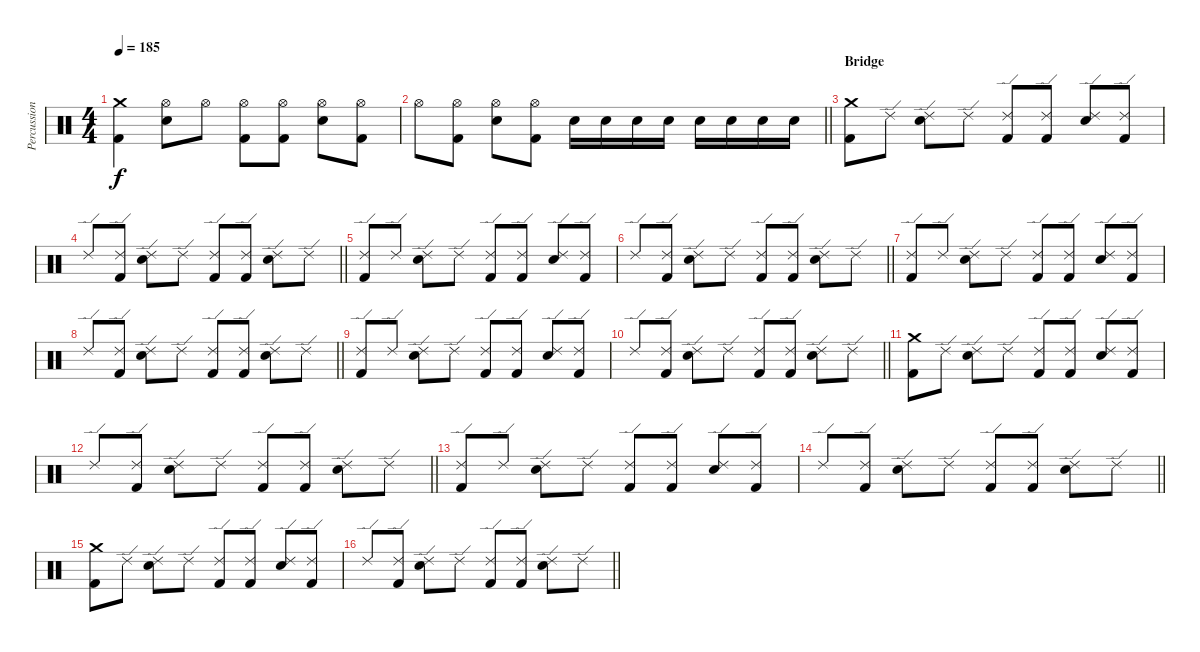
\track ("Percussion" "Percussion") {instrument percussion}
\staff {score}
\articulation defaults
\ts (4 4)
\tempo 185
\clef neutral
\ks c
("Crash medium (hit)" "Kick (hit) 2").4{dy f} ("Hi-Hat (open)" "Electric Snare (hit)").8 "Hi-Hat (open)".8 ("Hi-Hat (open)" "Kick (hit) 2").8 ("Hi-Hat (open)" "Kick (hit) 2").8 ("Hi-Hat (open)" "Electric Snare (hit)").8 ("Hi-Hat (open)" "Kick (hit) 2").8 |
\barLineRight lightlight "Hi-Hat (open)".8
("Hi-Hat (open)" "Kick (hit) 2").8 ("Hi-Hat (open)" "Electric Snare (hit)").8 ("Hi-Hat (open)" "Kick (hit) 2").8 "Electric Snare (hit)".16 "Electric Snare (hit)".16 "Electric Snare (hit)".16 "Electric Snare (hit)".16 "Electric Snare (hit)".16 "Electric Snare (hit)".16 "Electric Snare (hit)".16 "Electric Snare (hit)".16 |
\section ("" "Bridge")
("Crash medium (hit)" "Kick (hit) 2").8 "Ride (edge) 2".8 ("Ride (edge) 2" "Electric Snare (hit)").8 "Ride (edge) 2".8 ("Ride (edge) 2" "Kick (hit) 2").8 ("Ride (edge) 2" "Kick (hit) 2").8 ("Ride (edge) 2" "Electric Snare (hit)").8 ("Ride (edge) 2" "Kick (hit) 2").8 |
\barLineRight lightlight "Ride (edge) 2".8
("Ride (edge) 2" "Kick (hit) 2").8 ("Ride (edge) 2" "Electric Snare (hit)").8 "Ride (edge) 2".8 ("Ride (edge) 2" "Kick (hit) 2").8 ("Ride (edge) 2" "Kick (hit) 2").8 ("Ride (edge) 2" "Electric Snare (hit)").8 "Ride (edge) 2".8 |
("Ride (edge) 2" "Kick (hit) 2").8 "Ride (edge) 2".8 ("Ride (edge) 2" "Electric Snare (hit)").8 "Ride (edge) 2".8 ("Ride (edge) 2" "Kick (hit) 2").8 ("Ride (edge) 2" "Kick (hit) 2").8 ("Ride (edge) 2" "Electric Snare (hit)").8 ("Ride (edge) 2" "Kick (hit) 2").8 |
\barLineRight lightlight "Ride (edge) 2".8
("Ride (edge) 2" "Kick (hit) 2").8 ("Ride (edge) 2" "Electric Snare (hit)").8 "Ride (edge) 2".8 ("Ride (edge) 2" "Kick (hit) 2").8 ("Ride (edge) 2" "Kick (hit) 2").8 ("Ride (edge) 2" "Electric Snare (hit)").8 "Ride (edge) 2".8 |
("Ride (edge) 2" "Kick (hit) 2").8 "Ride (edge) 2".8 ("Ride (edge) 2" "Electric Snare (hit)").8 "Ride (edge) 2".8 ("Ride (edge) 2" "Kick (hit) 2").8 ("Ride (edge) 2" "Kick (hit) 2").8 ("Ride (edge) 2" "Electric Snare (hit)").8 ("Ride (edge) 2" "Kick (hit) 2").8 |
\barLineRight lightlight "Ride (edge) 2".8
("Ride (edge) 2" "Kick (hit) 2").8 ("Ride (edge) 2" "Electric Snare (hit)").8 "Ride (edge) 2".8 ("Ride (edge) 2" "Kick (hit) 2").8 ("Ride (edge) 2" "Kick (hit) 2").8 ("Ride (edge) 2" "Electric Snare (hit)").8 "Ride (edge) 2".8 |
("Ride (edge) 2" "Kick (hit) 2").8 "Ride (edge) 2".8 ("Ride (edge) 2" "Electric Snare (hit)").8 "Ride (edge) 2".8 ("Ride (edge) 2" "Kick (hit) 2").8 ("Ride (edge) 2" "Kick (hit) 2").8 ("Ride (edge) 2" "Electric Snare (hit)").8 ("Ride (edge) 2" "Kick (hit) 2").8 |
\barLineRight lightlight "Ride (edge) 2".8
("Ride (edge) 2" "Kick (hit) 2").8 ("Ride (edge) 2" "Electric Snare (hit)").8 "Ride (edge) 2".8 ("Ride (edge) 2" "Kick (hit) 2").8 ("Ride (edge) 2" "Kick (hit) 2").8 ("Ride (edge) 2" "Electric Snare (hit)").8 "Ride (edge) 2".8 |
("Crash medium (hit)" "Kick (hit) 2").8 "Ride (edge) 2".8 ("Ride (edge) 2" "Electric Snare (hit)").8 "Ride (edge) 2".8 ("Ride (edge) 2" "Kick (hit) 2").8 ("Ride (edge) 2" "Kick (hit) 2").8 ("Ride (edge) 2" "Electric Snare (hit)").8 ("Ride (edge) 2" "Kick (hit) 2").8 |
\barLineRight lightlight "Ride (edge) 2".8
("Ride (edge) 2" "Kick (hit) 2").8 ("Ride (edge) 2" "Electric Snare (hit)").8 "Ride (edge) 2".8 ("Ride (edge) 2" "Kick (hit) 2").8 ("Ride (edge) 2" "Kick (hit) 2").8 ("Ride (edge) 2" "Electric Snare (hit)").8 "Ride (edge) 2".8 |
("Ride (edge) 2" "Kick (hit) 2").8 "Ride (edge) 2".8 ("Ride (edge) 2" "Electric Snare (hit)").8 "Ride (edge) 2".8 ("Ride (edge) 2" "Kick (hit) 2").8 ("Ride (edge) 2" "Kick (hit) 2").8 ("Ride (edge) 2" "Electric Snare (hit)").8 ("Ride (edge) 2" "Kick (hit) 2").8 |
\barLineRight lightlight "Ride (edge) 2".8
("Ride (edge) 2" "Kick (hit) 2").8 ("Ride (edge) 2" "Electric Snare (hit)").8 "Ride (edge) 2".8 ("Ride (edge) 2" "Kick (hit) 2").8 ("Ride (edge) 2" "Kick (hit) 2").8 ("Ride (edge) 2" "Electric Snare (hit)").8 "Ride (edge) 2".8 |
("Crash medium (hit)" "Kick (hit) 2").8 "Ride (edge) 2".8 ("Ride (edge) 2" "Electric Snare (hit)").8 "Ride (edge) 2".8 ("Ride (edge) 2" "Kick (hit) 2").8 ("Ride (edge) 2" "Kick (hit) 2").8 ("Ride (edge) 2" "Electric Snare (hit)").8 ("Ride (edge) 2" "Kick (hit) 2").8 |
\barLineRight lightlight "Ride (edge) 2".8
("Ride (edge) 2" "Kick (hit) 2").8 ("Ride (edge) 2" "Electric Snare (hit)").8 "Ride (edge) 2".8 ("Ride (edge) 2" "Kick (hit) 2").8 ("Ride (edge) 2" "Kick (hit) 2").8 ("Ride (edge) 2" "Electric Snare (hit)").8 "Ride (edge) 2".8
